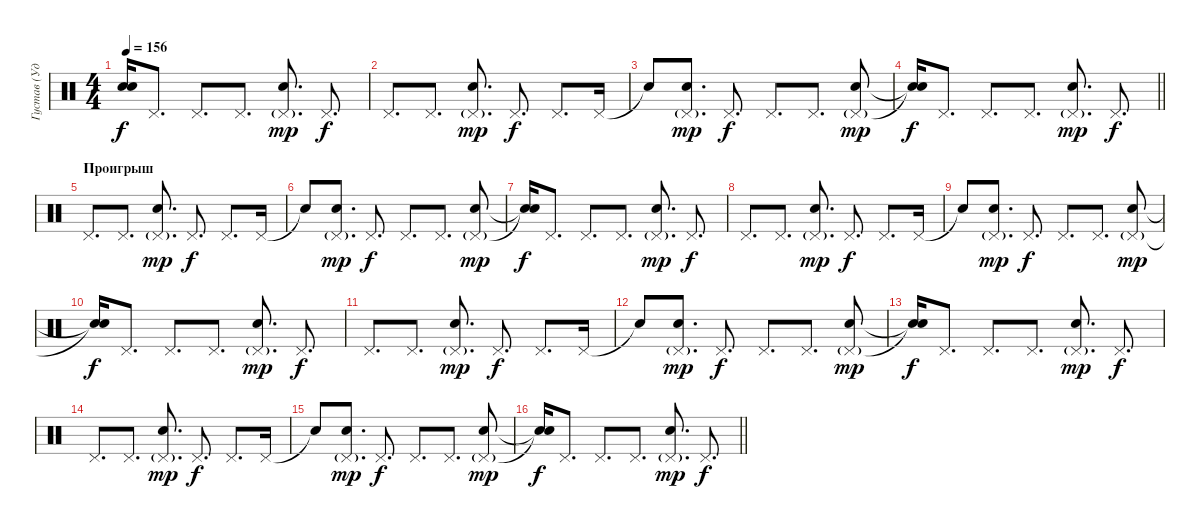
\track ("Густав (Ударные)" "Густав (Уд") {instrument percussion}
\staff {score}
\articulation defaults
\ts (4 4)
\tempo 156
\clef neutral
\ks c
("Snare (hit)"{t} "Snare (hit)"{t}).16{dy f} "Pedal Hi-Hat (hit)".8{d} "Pedal Hi-Hat (hit)".8{d} "Pedal Hi-Hat (hit)".8{d} ("Pedal Hi-Hat (hit)"{g} "Electric Snare (hit)").8{d dy mp} "Pedal Hi-Hat (hit)".8{d dy f} |
"Pedal Hi-Hat (hit)".8{d} "Pedal Hi-Hat (hit)".8{d} ("Pedal Hi-Hat (hit)"{g} "Electric Snare (hit)").8{d dy mp} "Pedal Hi-Hat (hit)".8{d dy f} "Pedal Hi-Hat (hit)".8{d} "Pedal Hi-Hat (hit)".16 |
"Snare (hit)"{t}.8 ("Pedal Hi-Hat (hit)"{g} "Electric Snare (hit)").8{d dy mp} "Pedal Hi-Hat (hit)".8{d dy f} "Pedal Hi-Hat (hit)".8{d} "Pedal Hi-Hat (hit)".8{d} ("Pedal Hi-Hat (hit)"{g} "Electric Snare (hit)").8{dy mp} |
\barLineRight lightlight
("Snare (hit)"{t} "Snare (hit)"{t}).16{dy f} "Pedal Hi-Hat (hit)".8{d} "Pedal Hi-Hat (hit)".8{d} "Pedal Hi-Hat (hit)".8{d} ("Pedal Hi-Hat (hit)"{g} "Electric Snare (hit)").8{d dy mp} "Pedal Hi-Hat (hit)".8{d dy f} |
\section ("" "Проигрыш")
"Pedal Hi-Hat (hit)".8{d} "Pedal Hi-Hat (hit)".8{d} ("Pedal Hi-Hat (hit)"{g} "Electric Snare (hit)").8{d dy mp} "Pedal Hi-Hat (hit)".8{d dy f} "Pedal Hi-Hat (hit)".8{d} "Pedal Hi-Hat (hit)".16 |
"Snare (hit)"{t}.8 ("Pedal Hi-Hat (hit)"{g} "Electric Snare (hit)").8{d dy mp} "Pedal Hi-Hat (hit)".8{d dy f} "Pedal Hi-Hat (hit)".8{d} "Pedal Hi-Hat (hit)".8{d} ("Pedal Hi-Hat (hit)"{g} "Electric Snare (hit)").8{dy mp} |
("Snare (hit)"{t} "Snare (hit)"{t}).16{dy f} "Pedal Hi-Hat (hit)".8{d} "Pedal Hi-Hat (hit)".8{d} "Pedal Hi-Hat (hit)".8{d} ("Pedal Hi-Hat (hit)"{g} "Electric Snare (hit)").8{d dy mp} "Pedal Hi-Hat (hit)".8{d dy f} |
"Pedal Hi-Hat (hit)".8{d} "Pedal Hi-Hat (hit)".8{d} ("Pedal Hi-Hat (hit)"{g} "Electric Snare (hit)").8{d dy mp} "Pedal Hi-Hat (hit)".8{d dy f} "Pedal Hi-Hat (hit)".8{d} "Pedal Hi-Hat (hit)".16 |
"Snare (hit)"{t}.8 ("Pedal Hi-Hat (hit)"{g} "Electric Snare (hit)").8{d dy mp} "Pedal Hi-Hat (hit)".8{d dy f} "Pedal Hi-Hat (hit)".8{d} "Pedal Hi-Hat (hit)".8{d} ("Pedal Hi-Hat (hit)"{g} "Electric Snare (hit)").8{dy mp} |
("Snare (hit)"{t} "Snare (hit)"{t}).16{dy f} "Pedal Hi-Hat (hit)".8{d} "Pedal Hi-Hat (hit)".8{d} "Pedal Hi-Hat (hit)".8{d} ("Pedal Hi-Hat (hit)"{g} "Electric Snare (hit)").8{d dy mp} "Pedal Hi-Hat (hit)".8{d dy f} |
"Pedal Hi-Hat (hit)".8{d} "Pedal Hi-Hat (hit)".8{d} ("Pedal Hi-Hat (hit)"{g} "Electric Snare (hit)").8{d dy mp} "Pedal Hi-Hat (hit)".8{d dy f} "Pedal Hi-Hat (hit)".8{d} "Pedal Hi-Hat (hit)".16 |
"Snare (hit)"{t}.8 ("Pedal Hi-Hat (hit)"{g} "Electric Snare (hit)").8{d dy mp} "Pedal Hi-Hat (hit)".8{d dy f} "Pedal Hi-Hat (hit)".8{d} "Pedal Hi-Hat (hit)".8{d} ("Pedal Hi-Hat (hit)"{g} "Electric Snare (hit)").8{dy mp} |
("Snare (hit)"{t} "Snare (hit)"{t}).16{dy f} "Pedal Hi-Hat (hit)".8{d} "Pedal Hi-Hat (hit)".8{d} "Pedal Hi-Hat (hit)".8{d} ("Pedal Hi-Hat (hit)"{g} "Electric Snare (hit)").8{d dy mp} "Pedal Hi-Hat (hit)".8{d dy f} |
"Pedal Hi-Hat (hit)".8{d} "Pedal Hi-Hat (hit)".8{d} ("Pedal Hi-Hat (hit)"{g} "Electric Snare (hit)").8{d dy mp} "Pedal Hi-Hat (hit)".8{d dy f} "Pedal Hi-Hat (hit)".8{d} "Pedal Hi-Hat (hit)".16 |
"Snare (hit)"{t}.8 ("Pedal Hi-Hat (hit)"{g} "Electric Snare (hit)").8{d dy mp} "Pedal Hi-Hat (hit)".8{d dy f} "Pedal Hi-Hat (hit)".8{d} "Pedal Hi-Hat (hit)".8{d} ("Pedal Hi-Hat (hit)"{g} "Electric Snare (hit)").8{dy mp} |
\barLineRight lightlight
("Snare (hit)"{t} "Snare (hit)"{t}).16{dy f} "Pedal Hi-Hat (hit)".8{d} "Pedal Hi-Hat (hit)".8{d} "Pedal Hi-Hat (hit)".8{d} ("Pedal Hi-Hat (hit)"{g} "Electric Snare (hit)").8{d dy mp} "Pedal Hi-Hat (hit)".8{d dy f}
